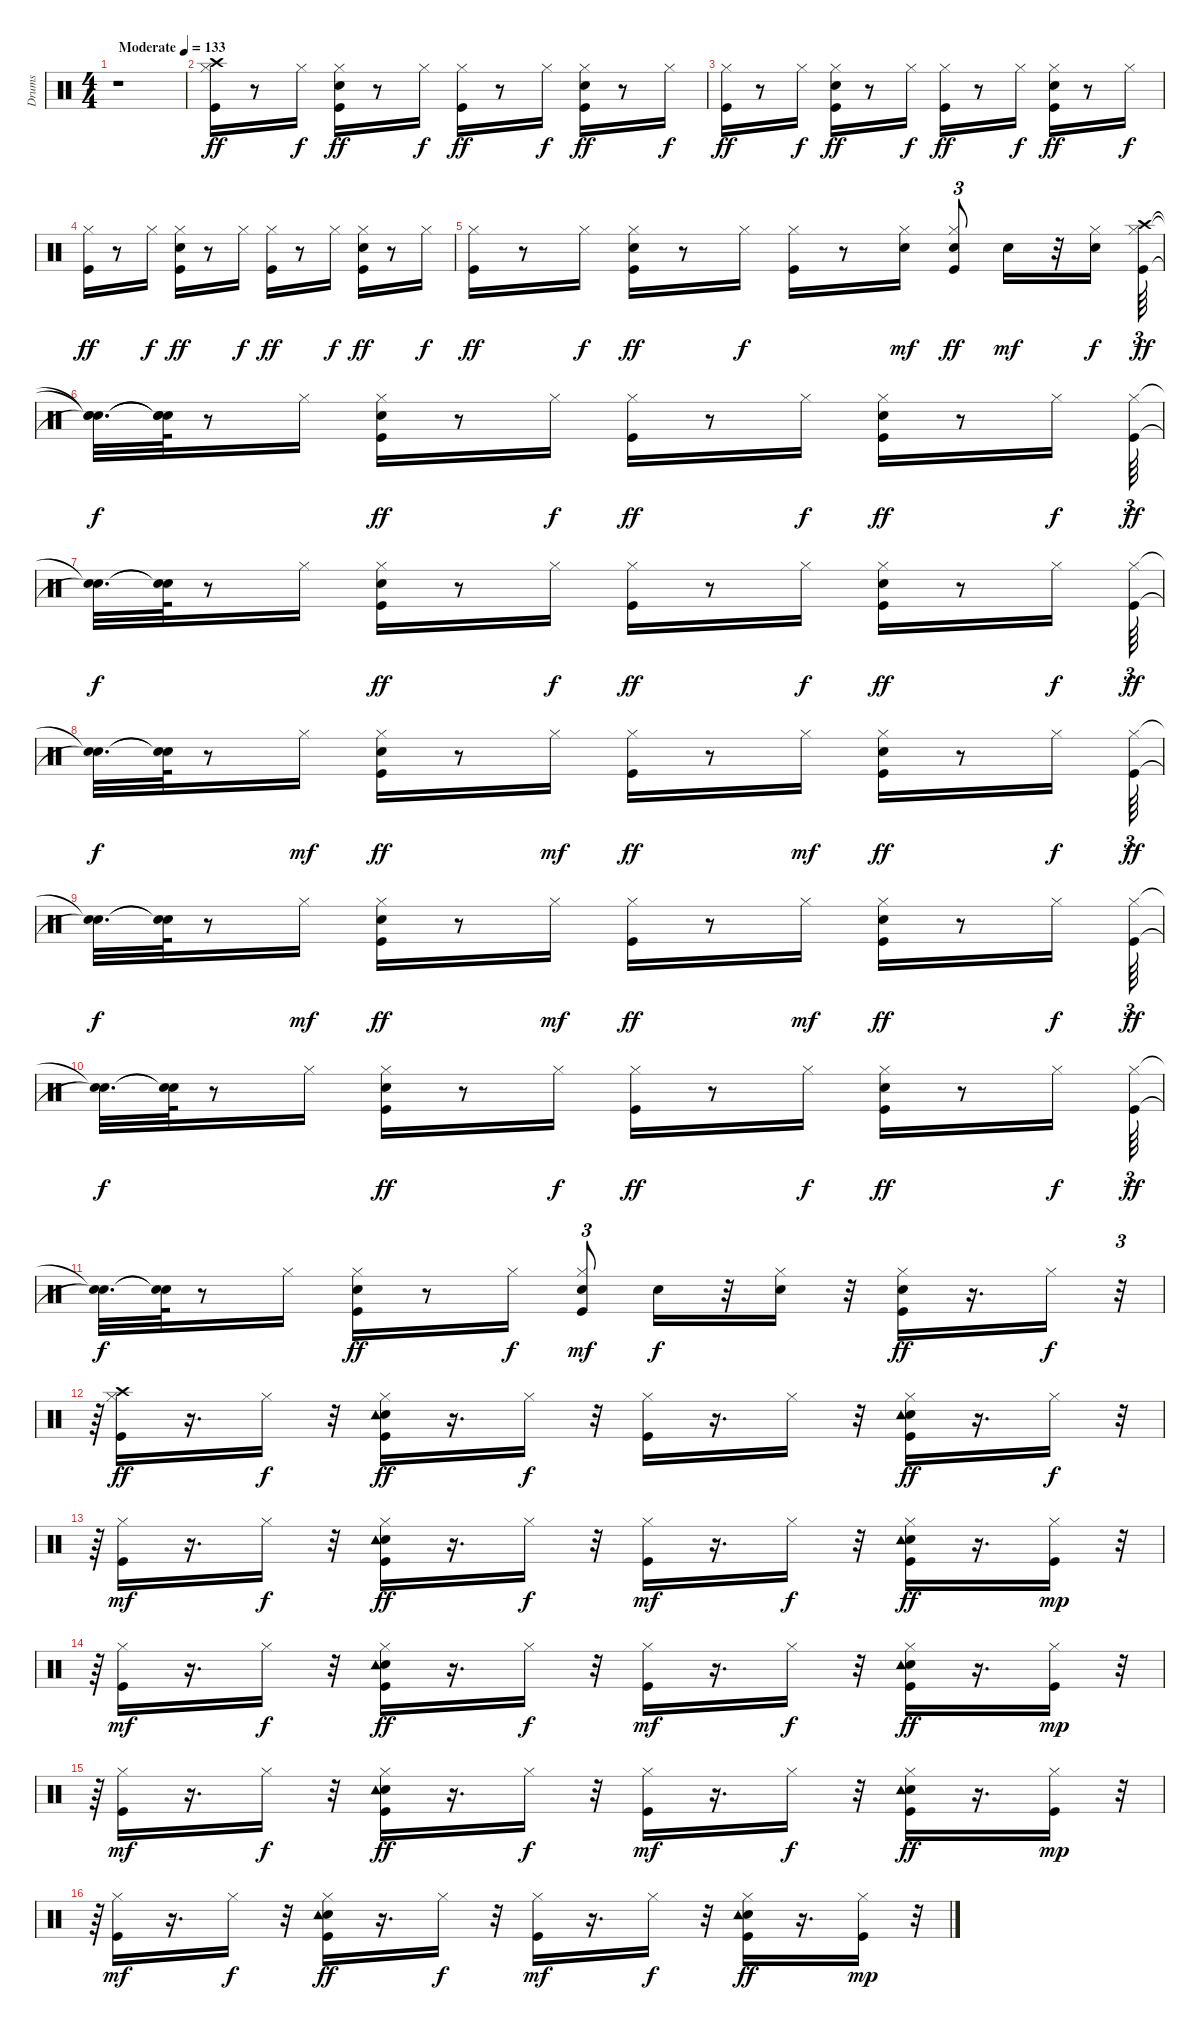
\track ("Drums   " "Drums   ") {instrument percussion}
\staff {score}
\articulation defaults
\ts (4 4)
\tempo (133 "Moderate")
\clef neutral
\ks c
r.1{dy ff} |
("Kick (hit)" "Hi-Hat (closed)" "Crash high (hit)").16 r.8 "Hi-Hat (closed)".16{dy f} ("Kick (hit)" "Snare (hit) 2" "Hi-Hat (closed)").16{dy ff} r.8 "Hi-Hat (closed)".16{dy f} ("Kick (hit)" "Hi-Hat (closed)").16{dy ff} r.8 "Hi-Hat (closed)".16{dy f} ("Kick (hit)" "Snare (hit) 2" "Hi-Hat (closed)").16{dy ff} r.8 "Hi-Hat (closed)".16{dy f} |
("Kick (hit)" "Hi-Hat (closed)").16{dy ff} r.8 "Hi-Hat (closed)".16{dy f} ("Kick (hit)" "Snare (hit) 2" "Hi-Hat (closed)").16{dy ff} r.8 "Hi-Hat (closed)".16{dy f} ("Kick (hit)" "Hi-Hat (closed)").16{dy ff} r.8 "Hi-Hat (closed)".16{dy f} ("Kick (hit)" "Snare (hit) 2" "Hi-Hat (closed)").16{dy ff} r.8 "Hi-Hat (closed)".16{dy f} |
("Kick (hit)" "Hi-Hat (closed)").16{dy ff} r.8 "Hi-Hat (closed)".16{dy f} ("Kick (hit)" "Snare (hit) 2" "Hi-Hat (closed)").16{dy ff} r.8 "Hi-Hat (closed)".16{dy f} ("Kick (hit)" "Hi-Hat (closed)").16{dy ff} r.8 "Hi-Hat (closed)".16{dy f} ("Kick (hit)" "Snare (hit) 2" "Hi-Hat (closed)").16{dy ff} r.8 "Hi-Hat (closed)".16{dy f} |
("Kick (hit)" "Hi-Hat (closed)").16{dy ff} r.8 "Hi-Hat (closed)".16{dy f} ("Kick (hit)" "Snare (hit) 2" "Hi-Hat (closed)").16{dy ff} r.8 "Hi-Hat (closed)".16{dy f} ("Kick (hit)" "Hi-Hat (closed)").16 r.8 ("Snare (hit) 2" "Hi-Hat (closed)").16{dy mf} ("Kick (hit)" "Snare (hit) 2" "Hi-Hat (closed)").8{tu (3 2) dy ff} "Snare (hit) 2".16{dy mf} r.32 ("Snare (hit) 2" "Hi-Hat (closed)").16{dy f} ("Kick (hit)" "Hi-Hat (closed)" "Crash high (hit)").64{tu (3 2) dy ff} |
("Snare (hit)"{t} "Snare (hit)"{t} "Snare (hit)"{t}).32{d dy f} ("Snare (hit)"{t} "Snare (hit)"{t} "Snare (hit)"{t}).64 r.8 "Hi-Hat (closed)".16 ("Kick (hit)" "Snare (hit) 2" "Hi-Hat (closed)").16{dy ff} r.8 "Hi-Hat (closed)".16{dy f} ("Kick (hit)" "Hi-Hat (closed)").16{dy ff} r.8 "Hi-Hat (closed)".16{dy f} ("Kick (hit)" "Snare (hit) 2" "Hi-Hat (closed)").16{dy ff} r.8 "Hi-Hat (closed)".16{dy f} ("Kick (hit)" "Hi-Hat (closed)").64{tu (3 2) dy ff} |
("Snare (hit)"{t} "Snare (hit)"{t}).32{d dy f} ("Snare (hit)"{t} "Snare (hit)"{t}).64 r.8 "Hi-Hat (closed)".16 ("Kick (hit)" "Snare (hit) 2" "Hi-Hat (closed)").16{dy ff} r.8 "Hi-Hat (closed)".16{dy f} ("Kick (hit)" "Hi-Hat (closed)").16{dy ff} r.8 "Hi-Hat (closed)".16{dy f} ("Kick (hit)" "Snare (hit) 2" "Hi-Hat (closed)").16{dy ff} r.8 "Hi-Hat (closed)".16{dy f} ("Kick (hit)" "Hi-Hat (closed)").64{tu (3 2) dy ff} |
("Snare (hit)"{t} "Snare (hit)"{t}).32{d dy f} ("Snare (hit)"{t} "Snare (hit)"{t}).64 r.8 "Hi-Hat (closed)".16{dy mf} ("Kick (hit)" "Snare (hit) 2" "Hi-Hat (closed)").16{dy ff} r.8 "Hi-Hat (closed)".16{dy mf} ("Kick (hit)" "Hi-Hat (closed)").16{dy ff} r.8 "Hi-Hat (closed)".16{dy mf} ("Kick (hit)" "Snare (hit) 2" "Hi-Hat (closed)").16{dy ff} r.8 "Hi-Hat (closed)".16{dy f} ("Kick (hit)" "Hi-Hat (closed)").64{tu (3 2) dy ff} |
("Snare (hit)"{t} "Snare (hit)"{t}).32{d dy f} ("Snare (hit)"{t} "Snare (hit)"{t}).64 r.8 "Hi-Hat (closed)".16{dy mf} ("Kick (hit)" "Snare (hit) 2" "Hi-Hat (closed)").16{dy ff} r.8 "Hi-Hat (closed)".16{dy mf} ("Kick (hit)" "Hi-Hat (closed)").16{dy ff} r.8 "Hi-Hat (closed)".16{dy mf} ("Kick (hit)" "Snare (hit) 2" "Hi-Hat (closed)").16{dy ff} r.8 "Hi-Hat (closed)".16{dy f} ("Kick (hit)" "Hi-Hat (closed)").64{tu (3 2) dy ff} |
("Snare (hit)"{t} "Snare (hit)"{t}).32{d dy f} ("Snare (hit)"{t} "Snare (hit)"{t}).64 r.8 "Hi-Hat (closed)".16 ("Kick (hit)" "Snare (hit) 2" "Hi-Hat (closed)").16{dy ff} r.8 "Hi-Hat (closed)".16{dy f} ("Kick (hit)" "Hi-Hat (closed)").16{dy ff} r.8 "Hi-Hat (closed)".16{dy f} ("Kick (hit)" "Snare (hit) 2" "Hi-Hat (closed)").16{dy ff} r.8 "Hi-Hat (closed)".16{dy f} ("Kick (hit)" "Hi-Hat (closed)").64{tu (3 2) dy ff} |
("Snare (hit)"{t} "Snare (hit)"{t}).32{d dy f} ("Snare (hit)"{t} "Snare (hit)"{t}).64 r.8 "Hi-Hat (closed)".16 ("Kick (hit)" "Snare (hit) 2" "Hi-Hat (closed)").16{dy ff} r.8 "Hi-Hat (closed)".16{dy f} ("Kick (hit)" "Snare (hit) 2" "Hi-Hat (closed)").8{tu (3 2) dy mf} "Snare (hit) 2".16{dy f} r.32 ("Snare (hit) 2" "Hi-Hat (closed)").16 r.32 ("Kick (hit)" "Snare (hit) 2" "Hi-Hat (closed)").16{dy ff} r.16{d} "Hi-Hat (closed)".16{dy f} r.32{tu (3 2)} |
r.64{tu (3 2)} ("Kick (hit)" "Hi-Hat (closed)" "Crash high (hit)").16{dy ff} r.16{d} "Hi-Hat (closed)".16{dy f} r.32 ("Kick (hit)" "Snare (hit) 2" "Hi-Hat (closed)" "Tambourine (hit)").16{dy ff} r.16{d} "Hi-Hat (closed)".16{dy f} r.32 ("Kick (hit)" "Hi-Hat (closed)").16 r.16{d} "Hi-Hat (closed)".16 r.32 ("Kick (hit)" "Snare (hit) 2" "Hi-Hat (closed)" "Tambourine (hit)").16{dy ff} r.16{d} "Hi-Hat (closed)".16{dy f} r.32{tu (3 2)} |
r.64{tu (3 2)} ("Kick (hit)" "Hi-Hat (closed)").16{dy mf} r.16{d} "Hi-Hat (closed)".16{dy f} r.32 ("Kick (hit)" "Snare (hit) 2" "Hi-Hat (closed)" "Tambourine (hit)").16{dy ff} r.16{d} "Hi-Hat (closed)".16{dy f} r.32 ("Kick (hit)" "Hi-Hat (closed)").16{dy mf} r.16{d} "Hi-Hat (closed)".16{dy f} r.32 ("Kick (hit)" "Snare (hit) 2" "Hi-Hat (closed)" "Tambourine (hit)").16{dy ff} r.16{d} ("Kick (hit)" "Hi-Hat (closed)").16{dy mp} r.32{tu (3 2)} |
r.64{tu (3 2)} ("Kick (hit)" "Hi-Hat (closed)").16{dy mf} r.16{d} "Hi-Hat (closed)".16{dy f} r.32 ("Kick (hit)" "Snare (hit) 2" "Hi-Hat (closed)" "Tambourine (hit)").16{dy ff} r.16{d} "Hi-Hat (closed)".16{dy f} r.32 ("Kick (hit)" "Hi-Hat (closed)").16{dy mf} r.16{d} "Hi-Hat (closed)".16{dy f} r.32 ("Kick (hit)" "Snare (hit) 2" "Hi-Hat (closed)" "Tambourine (hit)").16{dy ff} r.16{d} ("Kick (hit)" "Hi-Hat (closed)").16{dy mp} r.32{tu (3 2)} |
r.64{tu (3 2)} ("Kick (hit)" "Hi-Hat (closed)").16{dy mf} r.16{d} "Hi-Hat (closed)".16{dy f} r.32 ("Kick (hit)" "Snare (hit) 2" "Hi-Hat (closed)" "Tambourine (hit)").16{dy ff} r.16{d} "Hi-Hat (closed)".16{dy f} r.32 ("Kick (hit)" "Hi-Hat (closed)").16{dy mf} r.16{d} "Hi-Hat (closed)".16{dy f} r.32 ("Kick (hit)" "Snare (hit) 2" "Hi-Hat (closed)" "Tambourine (hit)").16{dy ff} r.16{d} ("Kick (hit)" "Hi-Hat (closed)").16{dy mp} r.32{tu (3 2)} |
r.64{tu (3 2)} ("Kick (hit)" "Hi-Hat (closed)").16{dy mf} r.16{d} "Hi-Hat (closed)".16{dy f} r.32 ("Kick (hit)" "Snare (hit) 2" "Hi-Hat (closed)" "Tambourine (hit)").16{dy ff} r.16{d} "Hi-Hat (closed)".16{dy f} r.32 ("Kick (hit)" "Hi-Hat (closed)").16{dy mf} r.16{d} "Hi-Hat (closed)".16{dy f} r.32 ("Kick (hit)" "Snare (hit) 2" "Hi-Hat (closed)" "Tambourine (hit)").16{dy ff} r.16{d} ("Kick (hit)" "Hi-Hat (closed)").16{dy mp} r.32{tu (3 2)}
